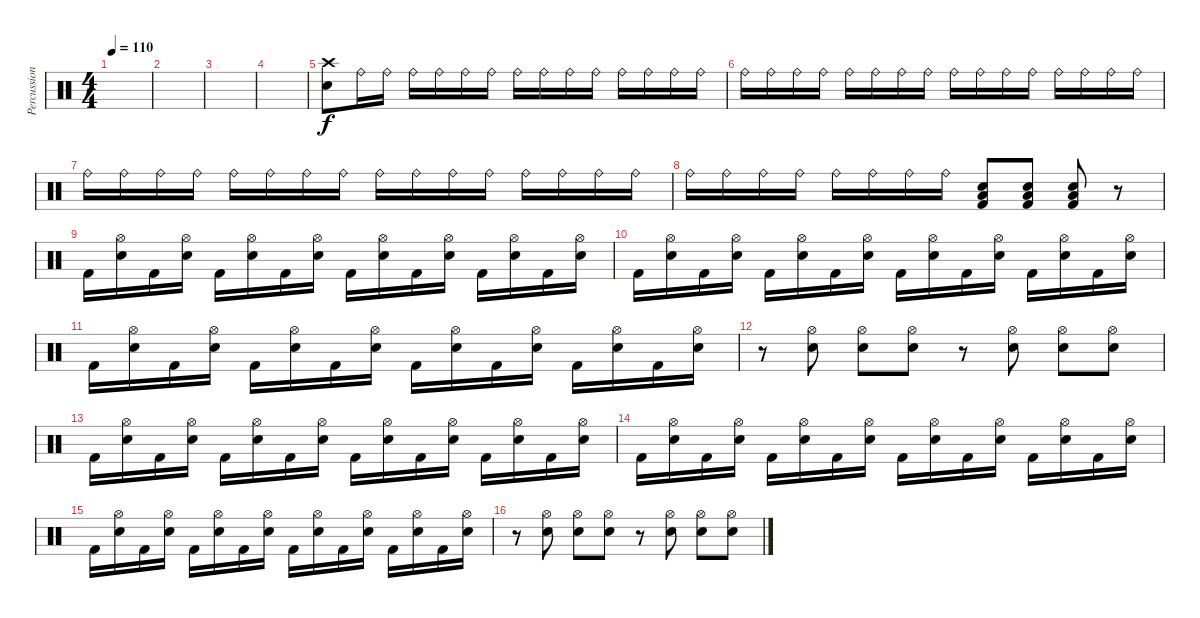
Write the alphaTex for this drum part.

\track ("Percussion" "Percussion") {instrument percussion}
\staff {score}
\articulation defaults
\ts (4 4)
\tempo 110
\clef neutral
\ks c
|
|
|
|
("Crash high (hit)" "Snare (hit) 2").8 "Ride (bell)".16 "Ride (bell)".16 "Ride (bell)".16 "Ride (bell)".16 "Ride (bell)".16 "Ride (bell)".16 "Ride (bell)".16 "Ride (bell)".16 "Ride (bell)".16 "Ride (bell)".16 "Ride (bell)".16 "Ride (bell)".16 "Ride (bell)".16 "Ride (bell)".16 |
"Ride (bell)".16 "Ride (bell)".16 "Ride (bell)".16 "Ride (bell)".16 "Ride (bell)".16 "Ride (bell)".16 "Ride (bell)".16 "Ride (bell)".16 "Ride (bell)".16 "Ride (bell)".16 "Ride (bell)".16 "Ride (bell)".16 "Ride (bell)".16 "Ride (bell)".16 "Ride (bell)".16 "Ride (bell)".16 |
"Ride (bell)".16 "Ride (bell)".16 "Ride (bell)".16 "Ride (bell)".16 "Ride (bell)".16 "Ride (bell)".16 "Ride (bell)".16 "Ride (bell)".16 "Ride (bell)".16 "Ride (bell)".16 "Ride (bell)".16 "Ride (bell)".16 "Ride (bell)".16 "Ride (bell)".16 "Ride (bell)".16 "Ride (bell)".16 |
"Ride (bell)".16 "Ride (bell)".16 "Ride (bell)".16 "Ride (bell)".16 "Ride (bell)".16 "Ride (bell)".16 "Ride (bell)".16 "Ride (bell)".16 ("Low Floor Tom (hit)" "Snare (hit) 2" "Kick (hit) 2").8 ("Low Floor Tom (hit)" "Snare (hit) 2" "Kick (hit) 2").8 ("Low Floor Tom (hit)" "Snare (hit) 2" "Kick (hit) 2").8 r.8 |
"Kick (hit) 2".16 ("Hi-Hat (open)" "Snare (hit) 2").16 "Kick (hit) 2".16 ("Hi-Hat (open)" "Snare (hit) 2").16 "Kick (hit) 2".16 ("Hi-Hat (open)" "Snare (hit) 2").16 "Kick (hit) 2".16 ("Hi-Hat (open)" "Snare (hit) 2").16 "Kick (hit) 2".16 ("Hi-Hat (open)" "Snare (hit) 2").16 "Kick (hit) 2".16 ("Hi-Hat (open)" "Snare (hit) 2").16 "Kick (hit) 2".16 ("Hi-Hat (open)" "Snare (hit) 2").16 "Kick (hit) 2".16 ("Hi-Hat (open)" "Snare (hit) 2").16 |
"Kick (hit) 2".16 ("Hi-Hat (open)" "Snare (hit) 2").16 "Kick (hit) 2".16 ("Hi-Hat (open)" "Snare (hit) 2").16 "Kick (hit) 2".16 ("Hi-Hat (open)" "Snare (hit) 2").16 "Kick (hit) 2".16 ("Hi-Hat (open)" "Snare (hit) 2").16 "Kick (hit) 2".16 ("Hi-Hat (open)" "Snare (hit) 2").16 "Kick (hit) 2".16 ("Hi-Hat (open)" "Snare (hit) 2").16 "Kick (hit) 2".16 ("Hi-Hat (open)" "Snare (hit) 2").16 "Kick (hit) 2".16 ("Hi-Hat (open)" "Snare (hit) 2").16 |
"Kick (hit) 2".16 ("Hi-Hat (open)" "Snare (hit) 2").16 "Kick (hit) 2".16 ("Hi-Hat (open)" "Snare (hit) 2").16 "Kick (hit) 2".16 ("Hi-Hat (open)" "Snare (hit) 2").16 "Kick (hit) 2".16 ("Hi-Hat (open)" "Snare (hit) 2").16 "Kick (hit) 2".16 ("Hi-Hat (open)" "Snare (hit) 2").16 "Kick (hit) 2".16 ("Hi-Hat (open)" "Snare (hit) 2").16 "Kick (hit) 2".16 ("Hi-Hat (open)" "Snare (hit) 2").16 "Kick (hit) 2".16 ("Hi-Hat (open)" "Snare (hit) 2").16 |
r.8 ("Hi-Hat (open)" "Snare (hit) 2").8 ("Hi-Hat (open)" "Snare (hit) 2").8 ("Hi-Hat (open)" "Snare (hit) 2").8 r.8 ("Hi-Hat (open)" "Snare (hit) 2").8 ("Hi-Hat (open)" "Snare (hit) 2").8 ("Hi-Hat (open)" "Snare (hit) 2").8 |
"Kick (hit) 2".16 ("Hi-Hat (open)" "Snare (hit) 2").16 "Kick (hit) 2".16 ("Hi-Hat (open)" "Snare (hit) 2").16 "Kick (hit) 2".16 ("Hi-Hat (open)" "Snare (hit) 2").16 "Kick (hit) 2".16 ("Hi-Hat (open)" "Snare (hit) 2").16 "Kick (hit) 2".16 ("Hi-Hat (open)" "Snare (hit) 2").16 "Kick (hit) 2".16 ("Hi-Hat (open)" "Snare (hit) 2").16 "Kick (hit) 2".16 ("Hi-Hat (open)" "Snare (hit) 2").16 "Kick (hit) 2".16 ("Hi-Hat (open)" "Snare (hit) 2").16 |
"Kick (hit) 2".16 ("Hi-Hat (open)" "Snare (hit) 2").16 "Kick (hit) 2".16 ("Hi-Hat (open)" "Snare (hit) 2").16 "Kick (hit) 2".16 ("Hi-Hat (open)" "Snare (hit) 2").16 "Kick (hit) 2".16 ("Hi-Hat (open)" "Snare (hit) 2").16 "Kick (hit) 2".16 ("Hi-Hat (open)" "Snare (hit) 2").16 "Kick (hit) 2".16 ("Hi-Hat (open)" "Snare (hit) 2").16 "Kick (hit) 2".16 ("Hi-Hat (open)" "Snare (hit) 2").16 "Kick (hit) 2".16 ("Hi-Hat (open)" "Snare (hit) 2").16 |
"Kick (hit) 2".16 ("Hi-Hat (open)" "Snare (hit) 2").16 "Kick (hit) 2".16 ("Hi-Hat (open)" "Snare (hit) 2").16 "Kick (hit) 2".16 ("Hi-Hat (open)" "Snare (hit) 2").16 "Kick (hit) 2".16 ("Hi-Hat (open)" "Snare (hit) 2").16 "Kick (hit) 2".16 ("Hi-Hat (open)" "Snare (hit) 2").16 "Kick (hit) 2".16 ("Hi-Hat (open)" "Snare (hit) 2").16 "Kick (hit) 2".16 ("Hi-Hat (open)" "Snare (hit) 2").16 "Kick (hit) 2".16 ("Hi-Hat (open)" "Snare (hit) 2").16 |
r.8 ("Hi-Hat (open)" "Snare (hit) 2").8 ("Hi-Hat (open)" "Snare (hit) 2").8 ("Hi-Hat (open)" "Snare (hit) 2").8 r.8 ("Hi-Hat (open)" "Snare (hit) 2").8 ("Hi-Hat (open)" "Snare (hit) 2").8 ("Hi-Hat (open)" "Snare (hit) 2").8
